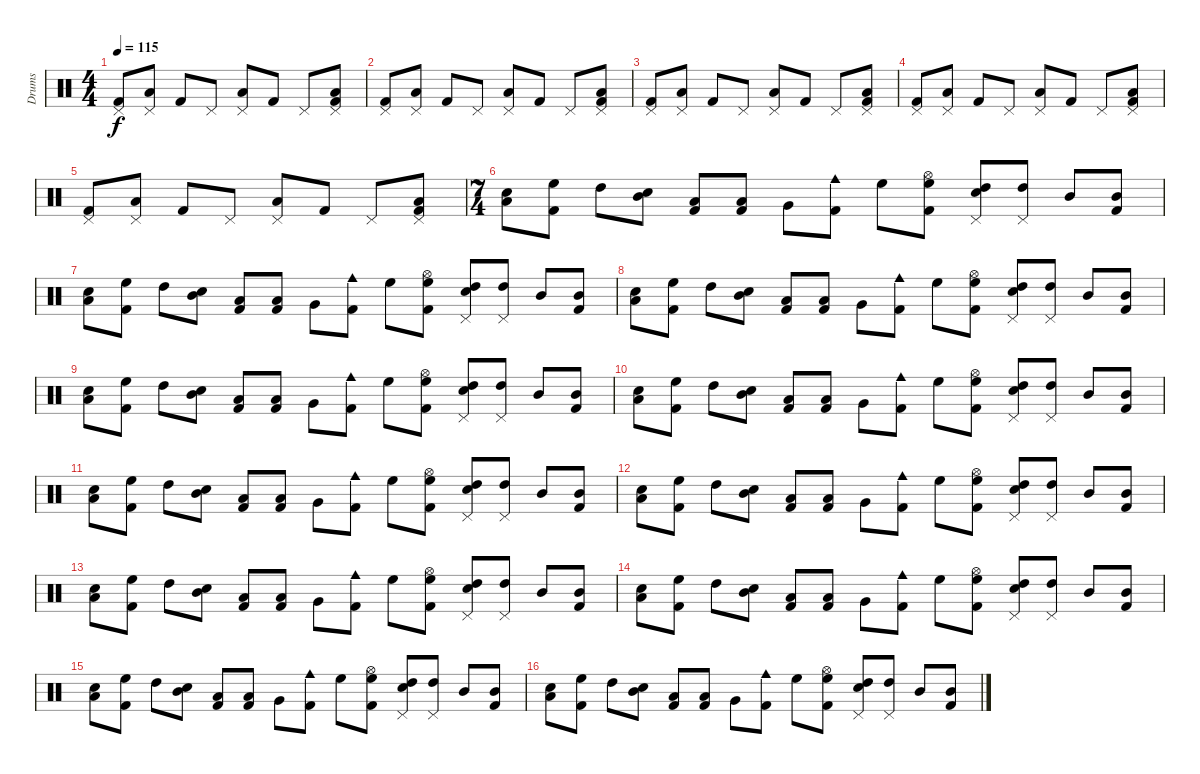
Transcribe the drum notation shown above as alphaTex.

\track ("Drums" "Drums") {instrument percussion}
\staff {score}
\articulation defaults
\ts (4 4)
\tempo 115
\clef neutral
\ks c
("Pedal Hi-Hat (hit)" "Kick (hit) 2").8{dy f} ("Pedal Hi-Hat (hit)" "Low Floor Tom (hit)").8 "Kick (hit) 2".8 "Pedal Hi-Hat (hit)".8 ("Pedal Hi-Hat (hit)" "Low Floor Tom (hit)").8 "Kick (hit) 2".8 "Pedal Hi-Hat (hit)".8 ("Pedal Hi-Hat (hit)" "Kick (hit) 2" "Low Floor Tom (hit)").8 |
("Pedal Hi-Hat (hit)" "Kick (hit) 2").8 ("Pedal Hi-Hat (hit)" "Low Floor Tom (hit)").8 "Kick (hit) 2".8 "Pedal Hi-Hat (hit)".8 ("Pedal Hi-Hat (hit)" "Low Floor Tom (hit)").8 "Kick (hit) 2".8 "Pedal Hi-Hat (hit)".8 ("Pedal Hi-Hat (hit)" "Kick (hit) 2" "Low Floor Tom (hit)").8 |
("Pedal Hi-Hat (hit)" "Kick (hit) 2").8 ("Pedal Hi-Hat (hit)" "Low Floor Tom (hit)").8 "Kick (hit) 2".8 "Pedal Hi-Hat (hit)".8 ("Pedal Hi-Hat (hit)" "Low Floor Tom (hit)").8 "Kick (hit) 2".8 "Pedal Hi-Hat (hit)".8 ("Pedal Hi-Hat (hit)" "Kick (hit) 2" "Low Floor Tom (hit)").8 |
("Pedal Hi-Hat (hit)" "Kick (hit) 2").8 ("Pedal Hi-Hat (hit)" "Low Floor Tom (hit)").8 "Kick (hit) 2".8 "Pedal Hi-Hat (hit)".8 ("Pedal Hi-Hat (hit)" "Low Floor Tom (hit)").8 "Kick (hit) 2".8 "Pedal Hi-Hat (hit)".8 ("Pedal Hi-Hat (hit)" "Kick (hit) 2" "Low Floor Tom (hit)").8 |
("Pedal Hi-Hat (hit)" "Kick (hit) 2").8 ("Pedal Hi-Hat (hit)" "Low Floor Tom (hit)").8 "Kick (hit) 2".8 "Pedal Hi-Hat (hit)".8 ("Pedal Hi-Hat (hit)" "Low Floor Tom (hit)").8 "Kick (hit) 2".8 "Pedal Hi-Hat (hit)".8 ("Pedal Hi-Hat (hit)" "Kick (hit) 2" "Low Floor Tom (hit)").8 |
\ts (7 4)
("Low Floor Tom (hit)" "Electric Snare (hit)").8 ("High Floor Tom (hit)" "Kick (hit) 2").8 "High Tom (hit)".8 ("Mid Tom (hit)" "Electric Snare (hit)").8 ("Low Tom (hit)" "Kick (hit) 2").8 ("Low Floor Tom (hit)" "Kick (hit) 2").8 "Very Low Tom (hit)".8 ("Cowbell medium (hit)" "Kick (hit) 2").8 "High Floor Tom (hit)".8 ("High Floor Tom (hit)" "Hi-Hat (open)" "Kick (hit) 2").8 ("High Tom (hit)" "Electric Snare (hit)" "Pedal Hi-Hat (hit)").8 ("High Tom (hit)" "Pedal Hi-Hat (hit)").8 "Mid Tom (hit)".8 ("Mid Tom (hit)" "Kick (hit) 2").8 |
("Low Floor Tom (hit)" "Electric Snare (hit)").8 ("High Floor Tom (hit)" "Kick (hit) 2").8 "High Tom (hit)".8 ("Mid Tom (hit)" "Electric Snare (hit)").8 ("Low Tom (hit)" "Kick (hit) 2").8 ("Low Floor Tom (hit)" "Kick (hit) 2").8 "Very Low Tom (hit)".8 ("Cowbell medium (hit)" "Kick (hit) 2").8 "High Floor Tom (hit)".8 ("High Floor Tom (hit)" "Hi-Hat (open)" "Kick (hit) 2").8 ("High Tom (hit)" "Electric Snare (hit)" "Pedal Hi-Hat (hit)").8 ("High Tom (hit)" "Pedal Hi-Hat (hit)").8 "Mid Tom (hit)".8 ("Mid Tom (hit)" "Kick (hit) 2").8 |
("Low Floor Tom (hit)" "Electric Snare (hit)").8 ("High Floor Tom (hit)" "Kick (hit) 2").8 "High Tom (hit)".8 ("Mid Tom (hit)" "Electric Snare (hit)").8 ("Low Tom (hit)" "Kick (hit) 2").8 ("Low Floor Tom (hit)" "Kick (hit) 2").8 "Very Low Tom (hit)".8 ("Cowbell medium (hit)" "Kick (hit) 2").8 "High Floor Tom (hit)".8 ("High Floor Tom (hit)" "Hi-Hat (open)" "Kick (hit) 2").8 ("High Tom (hit)" "Electric Snare (hit)" "Pedal Hi-Hat (hit)").8 ("High Tom (hit)" "Pedal Hi-Hat (hit)").8 "Mid Tom (hit)".8 ("Mid Tom (hit)" "Kick (hit) 2").8 |
("Low Floor Tom (hit)" "Electric Snare (hit)").8 ("High Floor Tom (hit)" "Kick (hit) 2").8 "High Tom (hit)".8 ("Mid Tom (hit)" "Electric Snare (hit)").8 ("Low Tom (hit)" "Kick (hit) 2").8 ("Low Floor Tom (hit)" "Kick (hit) 2").8 "Very Low Tom (hit)".8 ("Cowbell medium (hit)" "Kick (hit) 2").8 "High Floor Tom (hit)".8 ("High Floor Tom (hit)" "Hi-Hat (open)" "Kick (hit) 2").8 ("High Tom (hit)" "Electric Snare (hit)" "Pedal Hi-Hat (hit)").8 ("High Tom (hit)" "Pedal Hi-Hat (hit)").8 "Mid Tom (hit)".8 ("Mid Tom (hit)" "Kick (hit) 2").8 |
("Low Floor Tom (hit)" "Electric Snare (hit)").8 ("High Floor Tom (hit)" "Kick (hit) 2").8 "High Tom (hit)".8 ("Mid Tom (hit)" "Electric Snare (hit)").8 ("Low Tom (hit)" "Kick (hit) 2").8 ("Low Floor Tom (hit)" "Kick (hit) 2").8 "Very Low Tom (hit)".8 ("Cowbell medium (hit)" "Kick (hit) 2").8 "High Floor Tom (hit)".8 ("High Floor Tom (hit)" "Hi-Hat (open)" "Kick (hit) 2").8 ("High Tom (hit)" "Electric Snare (hit)" "Pedal Hi-Hat (hit)").8 ("High Tom (hit)" "Pedal Hi-Hat (hit)").8 "Mid Tom (hit)".8 ("Mid Tom (hit)" "Kick (hit) 2").8 |
("Low Floor Tom (hit)" "Electric Snare (hit)").8 ("High Floor Tom (hit)" "Kick (hit) 2").8 "High Tom (hit)".8 ("Mid Tom (hit)" "Electric Snare (hit)").8 ("Low Tom (hit)" "Kick (hit) 2").8 ("Low Floor Tom (hit)" "Kick (hit) 2").8 "Very Low Tom (hit)".8 ("Cowbell medium (hit)" "Kick (hit) 2").8 "High Floor Tom (hit)".8 ("High Floor Tom (hit)" "Hi-Hat (open)" "Kick (hit) 2").8 ("High Tom (hit)" "Electric Snare (hit)" "Pedal Hi-Hat (hit)").8 ("High Tom (hit)" "Pedal Hi-Hat (hit)").8 "Mid Tom (hit)".8 ("Mid Tom (hit)" "Kick (hit) 2").8 |
("Low Floor Tom (hit)" "Electric Snare (hit)").8 ("High Floor Tom (hit)" "Kick (hit) 2").8 "High Tom (hit)".8 ("Mid Tom (hit)" "Electric Snare (hit)").8 ("Low Tom (hit)" "Kick (hit) 2").8 ("Low Floor Tom (hit)" "Kick (hit) 2").8 "Very Low Tom (hit)".8 ("Cowbell medium (hit)" "Kick (hit) 2").8 "High Floor Tom (hit)".8 ("High Floor Tom (hit)" "Hi-Hat (open)" "Kick (hit) 2").8 ("High Tom (hit)" "Electric Snare (hit)" "Pedal Hi-Hat (hit)").8 ("High Tom (hit)" "Pedal Hi-Hat (hit)").8 "Mid Tom (hit)".8 ("Mid Tom (hit)" "Kick (hit) 2").8 |
("Low Floor Tom (hit)" "Electric Snare (hit)").8 ("High Floor Tom (hit)" "Kick (hit) 2").8 "High Tom (hit)".8 ("Mid Tom (hit)" "Electric Snare (hit)").8 ("Low Tom (hit)" "Kick (hit) 2").8 ("Low Floor Tom (hit)" "Kick (hit) 2").8 "Very Low Tom (hit)".8 ("Cowbell medium (hit)" "Kick (hit) 2").8 "High Floor Tom (hit)".8 ("High Floor Tom (hit)" "Hi-Hat (open)" "Kick (hit) 2").8 ("High Tom (hit)" "Electric Snare (hit)" "Pedal Hi-Hat (hit)").8 ("High Tom (hit)" "Pedal Hi-Hat (hit)").8 "Mid Tom (hit)".8 ("Mid Tom (hit)" "Kick (hit) 2").8 |
("Low Floor Tom (hit)" "Electric Snare (hit)").8 ("High Floor Tom (hit)" "Kick (hit) 2").8 "High Tom (hit)".8 ("Mid Tom (hit)" "Electric Snare (hit)").8 ("Low Tom (hit)" "Kick (hit) 2").8 ("Low Floor Tom (hit)" "Kick (hit) 2").8 "Very Low Tom (hit)".8 ("Cowbell medium (hit)" "Kick (hit) 2").8 "High Floor Tom (hit)".8 ("High Floor Tom (hit)" "Hi-Hat (open)" "Kick (hit) 2").8 ("High Tom (hit)" "Electric Snare (hit)" "Pedal Hi-Hat (hit)").8 ("High Tom (hit)" "Pedal Hi-Hat (hit)").8 "Mid Tom (hit)".8 ("Mid Tom (hit)" "Kick (hit) 2").8 |
("Low Floor Tom (hit)" "Electric Snare (hit)").8 ("High Floor Tom (hit)" "Kick (hit) 2").8 "High Tom (hit)".8 ("Mid Tom (hit)" "Electric Snare (hit)").8 ("Low Tom (hit)" "Kick (hit) 2").8 ("Low Floor Tom (hit)" "Kick (hit) 2").8 "Very Low Tom (hit)".8 ("Cowbell medium (hit)" "Kick (hit) 2").8 "High Floor Tom (hit)".8 ("High Floor Tom (hit)" "Hi-Hat (open)" "Kick (hit) 2").8 ("High Tom (hit)" "Electric Snare (hit)" "Pedal Hi-Hat (hit)").8 ("High Tom (hit)" "Pedal Hi-Hat (hit)").8 "Mid Tom (hit)".8 ("Mid Tom (hit)" "Kick (hit) 2").8 |
("Low Floor Tom (hit)" "Electric Snare (hit)").8 ("High Floor Tom (hit)" "Kick (hit) 2").8 "High Tom (hit)".8 ("Mid Tom (hit)" "Electric Snare (hit)").8 ("Low Tom (hit)" "Kick (hit) 2").8 ("Low Floor Tom (hit)" "Kick (hit) 2").8 "Very Low Tom (hit)".8 ("Cowbell medium (hit)" "Kick (hit) 2").8 "High Floor Tom (hit)".8 ("High Floor Tom (hit)" "Hi-Hat (open)" "Kick (hit) 2").8 ("High Tom (hit)" "Electric Snare (hit)" "Pedal Hi-Hat (hit)").8 ("High Tom (hit)" "Pedal Hi-Hat (hit)").8 "Mid Tom (hit)".8 ("Mid Tom (hit)" "Kick (hit) 2").8
